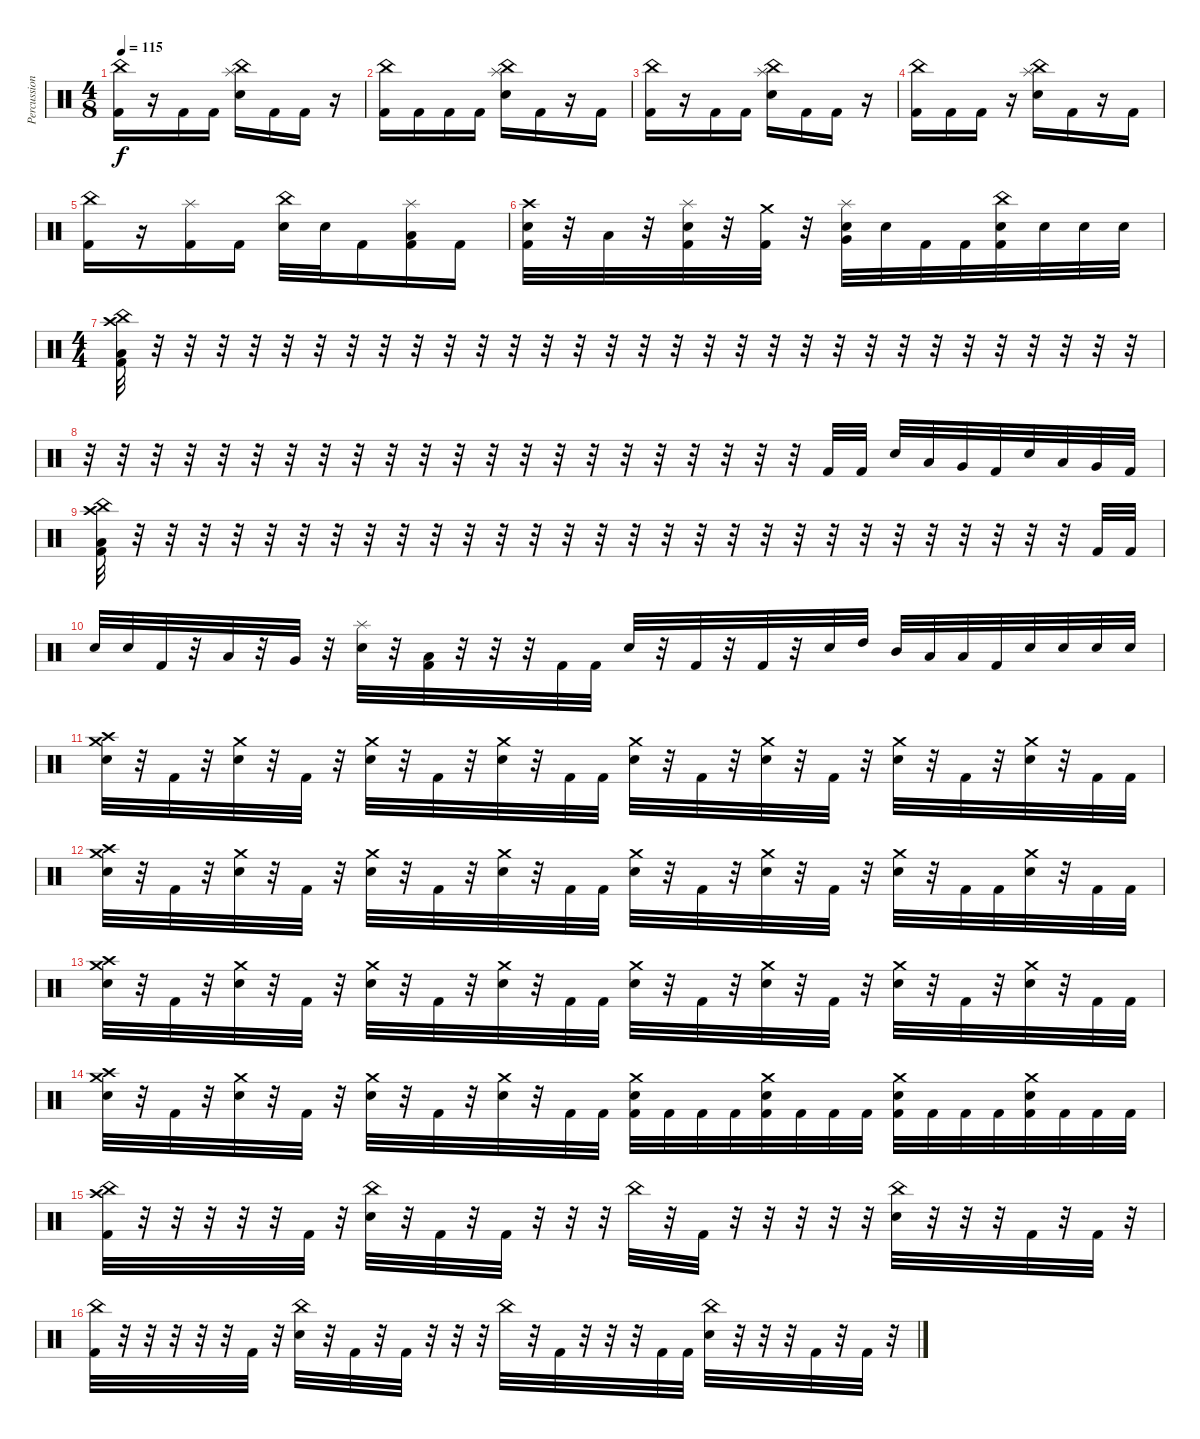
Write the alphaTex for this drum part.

\track ("Percussion" "Percussion") {instrument percussion}
\staff {score}
\articulation defaults
\ts (4 8)
\tempo 115
\clef neutral
\ks c
("China (hit)" "Kick (hit) 2").16{dy f} r.16 "Kick (hit) 2".16 "Kick (hit) 2".16 ("China (hit)" "Splash (hit)" "Electric Snare (hit)").16 "Kick (hit) 2".16 "Kick (hit) 2".16 r.16 |
("China (hit)" "Kick (hit) 2").16 "Kick (hit) 2".16 "Kick (hit) 2".16 "Kick (hit) 2".16 ("China (hit)" "Splash (hit)" "Electric Snare (hit)").16 "Kick (hit) 2".16 r.16 "Kick (hit) 2".16 |
("China (hit)" "Kick (hit) 2").16 r.16 "Kick (hit) 2".16 "Kick (hit) 2".16 ("China (hit)" "Splash (hit)" "Electric Snare (hit)").16 "Kick (hit) 2".16 "Kick (hit) 2".16 r.16 |
("China (hit)" "Kick (hit) 2").16 "Kick (hit) 2".16 "Kick (hit) 2".16 r.16 ("China (hit)" "Splash (hit)" "Electric Snare (hit)").16 "Kick (hit) 2".16 r.16 "Kick (hit) 2".16 |
("China (hit)" "Kick (hit) 2").16 r.16 ("Splash (hit)" "Kick (hit) 2").16 "Kick (hit) 2".16 ("China (hit)" "Electric Snare (hit)").32 "Electric Snare (hit)".32 "Kick (hit) 2".16 ("Splash (hit)" "Low Tom (hit)" "Kick (hit) 2").16 "Kick (hit) 2".16 |
("Crash high (hit)" "Electric Snare (hit)" "Kick (hit) 2").32 r.32 "Low Tom (hit)".32 r.32 ("Splash (hit)" "Electric Snare (hit)" "Kick (hit) 2").32 r.32 ("Crash medium (hit)" "Kick (hit) 2").32 r.32 ("Splash (hit)" "Electric Snare (hit)" "Very Low Tom (hit)").32 "Electric Snare (hit)".32 "Kick (hit) 2".32 "Kick (hit) 2".32 ("China (hit)" "Electric Snare (hit)" "Kick (hit) 2").32 "Electric Snare (hit)".32 "Electric Snare (hit)".32 "Electric Snare (hit)".32 |
\ts (4 4)
("China (hit)" "Crash high (hit)" "Low Floor Tom (hit)" "Kick (hit) 2").32 r.32 r.32 r.32 r.32 r.32 r.32 r.32 r.32 r.32 r.32 r.32 r.32 r.32 r.32 r.32 r.32 r.32 r.32 r.32 r.32 r.32 r.32 r.32 r.32 r.32 r.32 r.32 r.32 r.32 r.32 r.32 |
r.32 r.32 r.32 r.32 r.32 r.32 r.32 r.32 r.32 r.32 r.32 r.32 r.32 r.32 r.32 r.32 r.32 r.32 r.32 r.32 r.32 r.32 "Kick (hit) 2".32 "Kick (hit) 2".32 "Electric Snare (hit)".32 "Low Tom (hit)".32 "Very Low Tom (hit)".32 "Kick (hit) 2".32 "Electric Snare (hit)".32 "Low Tom (hit)".32 "Very Low Tom (hit)".32 "Kick (hit) 2".32 |
("China (hit)" "Crash high (hit)" "Low Floor Tom (hit)" "Kick (hit) 2").32 r.32 r.32 r.32 r.32 r.32 r.32 r.32 r.32 r.32 r.32 r.32 r.32 r.32 r.32 r.32 r.32 r.32 r.32 r.32 r.32 r.32 r.32 r.32 r.32 r.32 r.32 r.32 r.32 r.32 "Kick (hit) 2".32 "Kick (hit) 2".32 |
"Electric Snare (hit)".32 "Electric Snare (hit)".32 "Kick (hit) 2".32 r.32 "Low Tom (hit)".32 r.32 "Very Low Tom (hit)".32 r.32 ("Splash (hit)" "Electric Snare (hit)").32 r.32 ("Kick (hit) 2" "Low Floor Tom (hit)").32 r.32 r.32 r.32 "Kick (hit) 2".32 "Kick (hit) 2".32 "Electric Snare (hit)".32 r.32 "Kick (hit) 2".32 r.32 "Kick (hit) 2".32 r.32 "Electric Snare (hit)".32 "High Tom (hit)".32 "Mid Tom (hit)".32 "Low Tom (hit)".32 "Low Floor Tom (hit)".32 "Kick (hit) 2".32 "Electric Snare (hit)".32 "Electric Snare (hit)".32 "Electric Snare (hit)".32 "Electric Snare (hit)".32 |
("Crash medium (hit)" "Crash high (hit)" "Electric Snare (hit)").32 r.32 "Kick (hit) 2".32 r.32 ("Crash medium (hit)" "Electric Snare (hit)").32 r.32 "Kick (hit) 2".32 r.32 ("Crash medium (hit)" "Electric Snare (hit)").32 r.32 "Kick (hit) 2".32 r.32 ("Crash medium (hit)" "Electric Snare (hit)").32 r.32 "Kick (hit) 2".32 "Kick (hit) 2".32 ("Crash medium (hit)" "Electric Snare (hit)").32 r.32 "Kick (hit) 2".32 r.32 ("Crash medium (hit)" "Electric Snare (hit)").32 r.32 "Kick (hit) 2".32 r.32 ("Crash medium (hit)" "Electric Snare (hit)").32 r.32 "Kick (hit) 2".32 r.32 ("Crash medium (hit)" "Electric Snare (hit)").32 r.32 "Kick (hit) 2".32 "Kick (hit) 2".32 |
("Crash medium (hit)" "Crash high (hit)" "Electric Snare (hit)").32 r.32 "Kick (hit) 2".32 r.32 ("Crash medium (hit)" "Electric Snare (hit)").32 r.32 "Kick (hit) 2".32 r.32 ("Crash medium (hit)" "Electric Snare (hit)").32 r.32 "Kick (hit) 2".32 r.32 ("Crash medium (hit)" "Electric Snare (hit)").32 r.32 "Kick (hit) 2".32 "Kick (hit) 2".32 ("Crash medium (hit)" "Electric Snare (hit)").32 r.32 "Kick (hit) 2".32 r.32 ("Crash medium (hit)" "Electric Snare (hit)").32 r.32 "Kick (hit) 2".32 r.32 ("Crash medium (hit)" "Electric Snare (hit)").32 r.32 "Kick (hit) 2".32 "Kick (hit) 2".32 ("Crash medium (hit)" "Electric Snare (hit)").32 r.32 "Kick (hit) 2".32 "Kick (hit) 2".32 |
("Crash medium (hit)" "Crash high (hit)" "Electric Snare (hit)").32 r.32 "Kick (hit) 2".32 r.32 ("Crash medium (hit)" "Electric Snare (hit)").32 r.32 "Kick (hit) 2".32 r.32 ("Crash medium (hit)" "Electric Snare (hit)").32 r.32 "Kick (hit) 2".32 r.32 ("Crash medium (hit)" "Electric Snare (hit)").32 r.32 "Kick (hit) 2".32 "Kick (hit) 2".32 ("Crash medium (hit)" "Electric Snare (hit)").32 r.32 "Kick (hit) 2".32 r.32 ("Crash medium (hit)" "Electric Snare (hit)").32 r.32 "Kick (hit) 2".32 r.32 ("Crash medium (hit)" "Electric Snare (hit)").32 r.32 "Kick (hit) 2".32 r.32 ("Crash medium (hit)" "Electric Snare (hit)").32 r.32 "Kick (hit) 2".32 "Kick (hit) 2".32 |
("Crash medium (hit)" "Crash high (hit)" "Electric Snare (hit)").32 r.32 "Kick (hit) 2".32 r.32 ("Crash medium (hit)" "Electric Snare (hit)").32 r.32 "Kick (hit) 2".32 r.32 ("Crash medium (hit)" "Electric Snare (hit)").32 r.32 "Kick (hit) 2".32 r.32 ("Crash medium (hit)" "Electric Snare (hit)").32 r.32 "Kick (hit) 2".32 "Kick (hit) 2".32 ("Crash medium (hit)" "Electric Snare (hit)" "Kick (hit) 2").32 "Kick (hit) 2".32 "Kick (hit) 2".32 "Kick (hit) 2".32 ("Crash medium (hit)" "Electric Snare (hit)" "Kick (hit) 2").32 "Kick (hit) 2".32 "Kick (hit) 2".32 "Kick (hit) 2".32 ("Crash medium (hit)" "Electric Snare (hit)" "Kick (hit) 2").32 "Kick (hit) 2".32 "Kick (hit) 2".32 "Kick (hit) 2".32 ("Crash medium (hit)" "Electric Snare (hit)" "Kick (hit) 2").32 "Kick (hit) 2".32 "Kick (hit) 2".32 "Kick (hit) 2".32 |
("China (hit)" "Crash high (hit)" "Kick (hit) 2").32 r.32 r.32 r.32 r.32 r.32 "Kick (hit) 2".32 r.32 ("China (hit)" "Electric Snare (hit)").32 r.32 "Kick (hit) 2".32 r.32 "Kick (hit) 2".32 r.32 r.32 r.32 "China (hit)".32 r.32 "Kick (hit) 2".32 r.32 r.32 r.32 r.32 r.32 ("China (hit)" "Electric Snare (hit)").32 r.32 r.32 r.32 "Kick (hit) 2".32 r.32 "Kick (hit) 2".32 r.32 |
("China (hit)" "Kick (hit) 2").32 r.32 r.32 r.32 r.32 r.32 "Kick (hit) 2".32 r.32 ("China (hit)" "Electric Snare (hit)").32 r.32 "Kick (hit) 2".32 r.32 "Kick (hit) 2".32 r.32 r.32 r.32 "China (hit)".32 r.32 "Kick (hit) 2".32 r.32 r.32 r.32 "Kick (hit) 2".32 "Kick (hit) 2".32 ("China (hit)" "Electric Snare (hit)").32 r.32 r.32 r.32 "Kick (hit) 2".32 r.32 "Kick (hit) 2".32 r.32
